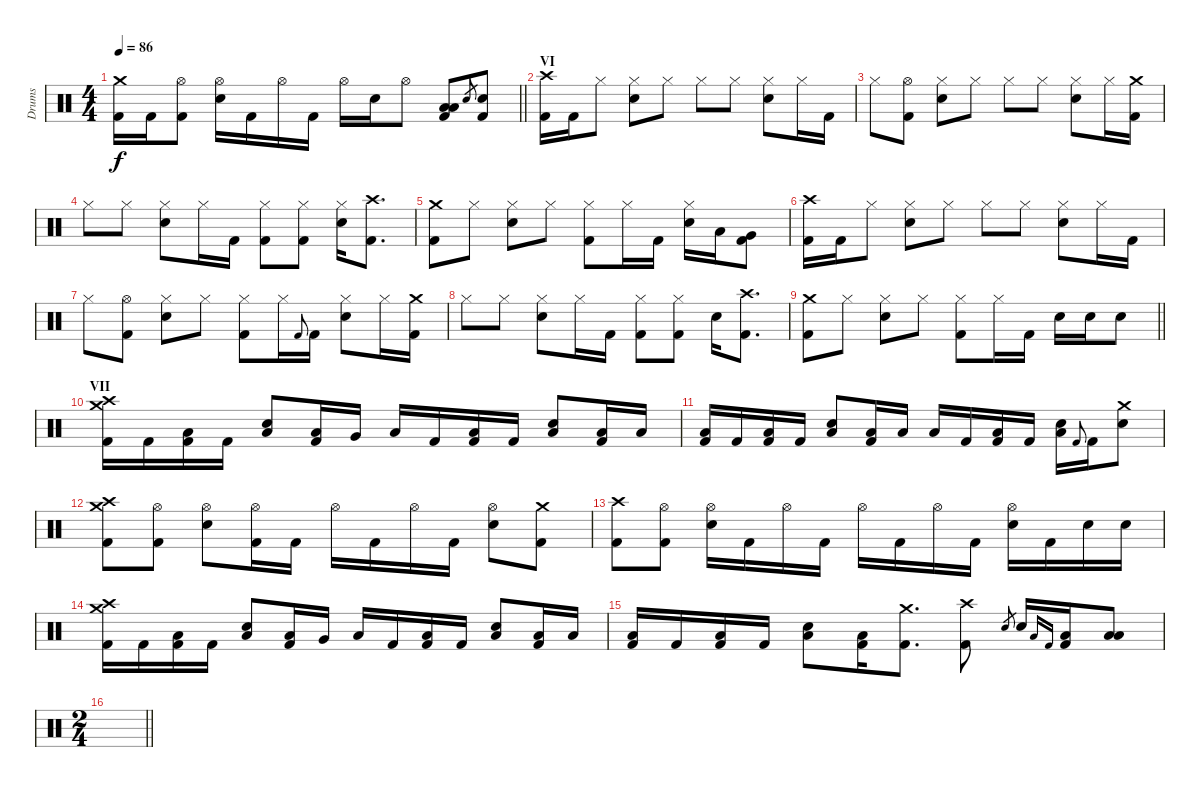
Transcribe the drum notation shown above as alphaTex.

\track ("Drums" "Drums") {instrument percussion}
\staff {score}
\articulation defaults
\ts (4 4)
\tempo 86
\clef neutral
\barLineRight lightlight
\ks c
("Kick (hit) 2" "Crash medium (hit)").16{dy f} "Kick (hit) 2".16 ("Hi-Hat (open)" "Kick (hit) 2").8 ("Hi-Hat (open)" "Electric Snare (hit)").16 "Kick (hit) 2".16 "Hi-Hat (open)".16 "Kick (hit) 2".16 "Hi-Hat (open)".16 "Electric Snare (hit)".16 "Hi-Hat (open)".8 ("Low Tom (hit)" "Low Floor Tom (hit)" "Kick (hit) 2").8 "Electric Snare (hit)".8{gr} ("Electric Snare (hit)" "Kick (hit) 2").8 |
\section ("" "VI")
("Kick (hit) 2" "Crash high (hit)").16 "Kick (hit) 2".16 "Hi-Hat (closed)".8 ("Hi-Hat (closed)" "Electric Snare (hit)").8 "Hi-Hat (closed)".8 "Hi-Hat (closed)".8 "Hi-Hat (closed)".8 ("Hi-Hat (closed)" "Electric Snare (hit)").8 "Hi-Hat (closed)".16 "Kick (hit) 2".16 |
"Hi-Hat (closed)".8 ("Hi-Hat (open)" "Kick (hit) 2").8 ("Hi-Hat (closed)" "Electric Snare (hit)").8 "Hi-Hat (closed)".8 "Hi-Hat (closed)".8 "Hi-Hat (closed)".8 ("Hi-Hat (closed)" "Electric Snare (hit)").8 "Hi-Hat (closed)".16 ("Kick (hit) 2" "Crash medium (hit)").16 |
"Hi-Hat (closed)".8 "Hi-Hat (closed)".8 ("Hi-Hat (closed)" "Electric Snare (hit)").8 "Hi-Hat (closed)".16 "Kick (hit) 2".16 ("Hi-Hat (closed)" "Kick (hit) 2").8 ("Hi-Hat (closed)" "Kick (hit) 2").8 ("Hi-Hat (closed)" "Electric Snare (hit)").16 ("Kick (hit) 2" "Crash high (hit)").8{d} |
("Kick (hit) 2" "Crash medium (hit)").8 "Hi-Hat (closed)".8 ("Hi-Hat (closed)" "Electric Snare (hit)").8 "Hi-Hat (closed)".8 ("Hi-Hat (closed)" "Kick (hit) 2").8 "Hi-Hat (closed)".16 "Kick (hit) 2".16 ("Hi-Hat (closed)" "Electric Snare (hit)").16 "Low Tom (hit)".16 ("Very Low Tom (hit)" "Kick (hit) 2").8 |
("Kick (hit) 2" "Crash high (hit)").16 "Kick (hit) 2".16 "Hi-Hat (closed)".8 ("Hi-Hat (closed)" "Electric Snare (hit)").8 "Hi-Hat (closed)".8 "Hi-Hat (closed)".8 "Hi-Hat (closed)".8 ("Hi-Hat (closed)" "Electric Snare (hit)").8 "Hi-Hat (closed)".16 "Kick (hit) 2".16 |
"Hi-Hat (closed)".8 ("Hi-Hat (open)" "Kick (hit) 2").8 ("Hi-Hat (closed)" "Electric Snare (hit)").8 "Hi-Hat (closed)".8 ("Hi-Hat (closed)" "Kick (hit) 2").8 "Hi-Hat (closed)".16 "Kick (hit) 2".8{gr onbeat} "Kick (hit) 2".16 ("Hi-Hat (closed)" "Electric Snare (hit)").8 "Hi-Hat (closed)".16 ("Kick (hit) 2" "Crash medium (hit)").16 |
"Hi-Hat (closed)".8 "Hi-Hat (closed)".8 ("Hi-Hat (closed)" "Electric Snare (hit)").8 "Hi-Hat (closed)".16 "Kick (hit) 2".16 ("Hi-Hat (closed)" "Kick (hit) 2").8 ("Hi-Hat (closed)" "Kick (hit) 2").8 "Electric Snare (hit)".16 ("Kick (hit) 2" "Crash high (hit)").8{d} |
\barLineRight lightlight
("Kick (hit) 2" "Crash medium (hit)").8 "Hi-Hat (closed)".8 ("Hi-Hat (closed)" "Electric Snare (hit)").8 "Hi-Hat (closed)".8 ("Hi-Hat (closed)" "Kick (hit) 2").8 "Hi-Hat (closed)".16 "Kick (hit) 2".16 "Electric Snare (hit)".16 "Electric Snare (hit)".16 "Electric Snare (hit)".8 |
\section ("" "VII")
("Kick (hit) 2" "Crash medium (hit)" "Crash high (hit)").16 "Kick (hit) 2".16 ("Kick (hit) 2" "Low Floor Tom (hit)").16 "Kick (hit) 2".16 ("Electric Snare (hit)" "Low Floor Tom (hit)").8 ("Kick (hit) 2" "Low Floor Tom (hit)").16 "Very Low Tom (hit)".16 "Low Floor Tom (hit)".16 "Kick (hit) 2".16 ("Kick (hit) 2" "Low Floor Tom (hit)").16 "Kick (hit) 2".16 ("Electric Snare (hit)" "Low Floor Tom (hit)").8 ("Kick (hit) 2" "Low Floor Tom (hit)").16 "Low Tom (hit)".16 |
("Kick (hit) 2" "Low Floor Tom (hit)").16 "Kick (hit) 2".16 ("Kick (hit) 2" "Low Floor Tom (hit)").16 "Kick (hit) 2".16 ("Electric Snare (hit)" "Low Floor Tom (hit)").8 ("Kick (hit) 2" "Low Floor Tom (hit)").16 "Low Tom (hit)".16 "Low Floor Tom (hit)".16 "Kick (hit) 2".16 ("Kick (hit) 2" "Low Floor Tom (hit)").16 "Kick (hit) 2".16 ("Electric Snare (hit)" "Low Floor Tom (hit)").16 "Kick (hit) 2".8{gr onbeat} "Kick (hit) 2".16 ("Crash medium (hit)" "Electric Snare (hit)").8 |
("Kick (hit) 2" "Crash medium (hit)" "Crash high (hit)").8 ("Hi-Hat (open)" "Kick (hit) 2").8 ("Hi-Hat (open)" "Electric Snare (hit)").8 ("Hi-Hat (open)" "Kick (hit) 2").16 "Kick (hit) 2".16 "Hi-Hat (open)".16 "Kick (hit) 2".16 "Hi-Hat (open)".16 "Kick (hit) 2".16 ("Hi-Hat (open)" "Electric Snare (hit)").8 ("Kick (hit) 2" "Crash medium (hit)").8 |
("Kick (hit) 2" "Crash high (hit)").8 ("Hi-Hat (open)" "Kick (hit) 2").8 ("Hi-Hat (open)" "Electric Snare (hit)").16 "Kick (hit) 2".16 "Hi-Hat (open)".16 "Kick (hit) 2".16 "Hi-Hat (open)".16 "Kick (hit) 2".16 "Hi-Hat (open)".16 "Kick (hit) 2".16 ("Hi-Hat (open)" "Electric Snare (hit)").16 "Kick (hit) 2".16 "Electric Snare (hit)".16 "Electric Snare (hit)".16 |
("Kick (hit) 2" "Crash medium (hit)" "Crash high (hit)").16 "Kick (hit) 2".16 ("Kick (hit) 2" "Low Floor Tom (hit)").16 "Kick (hit) 2".16 ("Electric Snare (hit)" "Low Floor Tom (hit)").8 ("Kick (hit) 2" "Low Floor Tom (hit)").16 "Very Low Tom (hit)".16 "Low Floor Tom (hit)".16 "Kick (hit) 2".16 ("Kick (hit) 2" "Low Floor Tom (hit)").16 "Kick (hit) 2".16 ("Electric Snare (hit)" "Low Floor Tom (hit)").8 ("Kick (hit) 2" "Low Floor Tom (hit)").16 "Low Tom (hit)".16 |
("Kick (hit) 2" "Low Floor Tom (hit)").16 "Kick (hit) 2".16 ("Kick (hit) 2" "Low Floor Tom (hit)").16 "Kick (hit) 2".16 ("Electric Snare (hit)" "Low Floor Tom (hit)").8 ("Kick (hit) 2" "Low Floor Tom (hit)").16 ("Kick (hit) 2" "Crash medium (hit)").8{d} ("Kick (hit) 2" "Crash high (hit)").8 "Electric Snare (hit)".8{gr} "Electric Snare (hit)".16 "Low Tom (hit)".16{gr onbeat} "Kick (hit) 2".16{gr onbeat} ("Low Tom (hit)" "Kick (hit) 2").16 ("Low Floor Tom (hit)" "Low Tom (hit)").8 |
\ts (2 4)
\barLineRight lightlight
